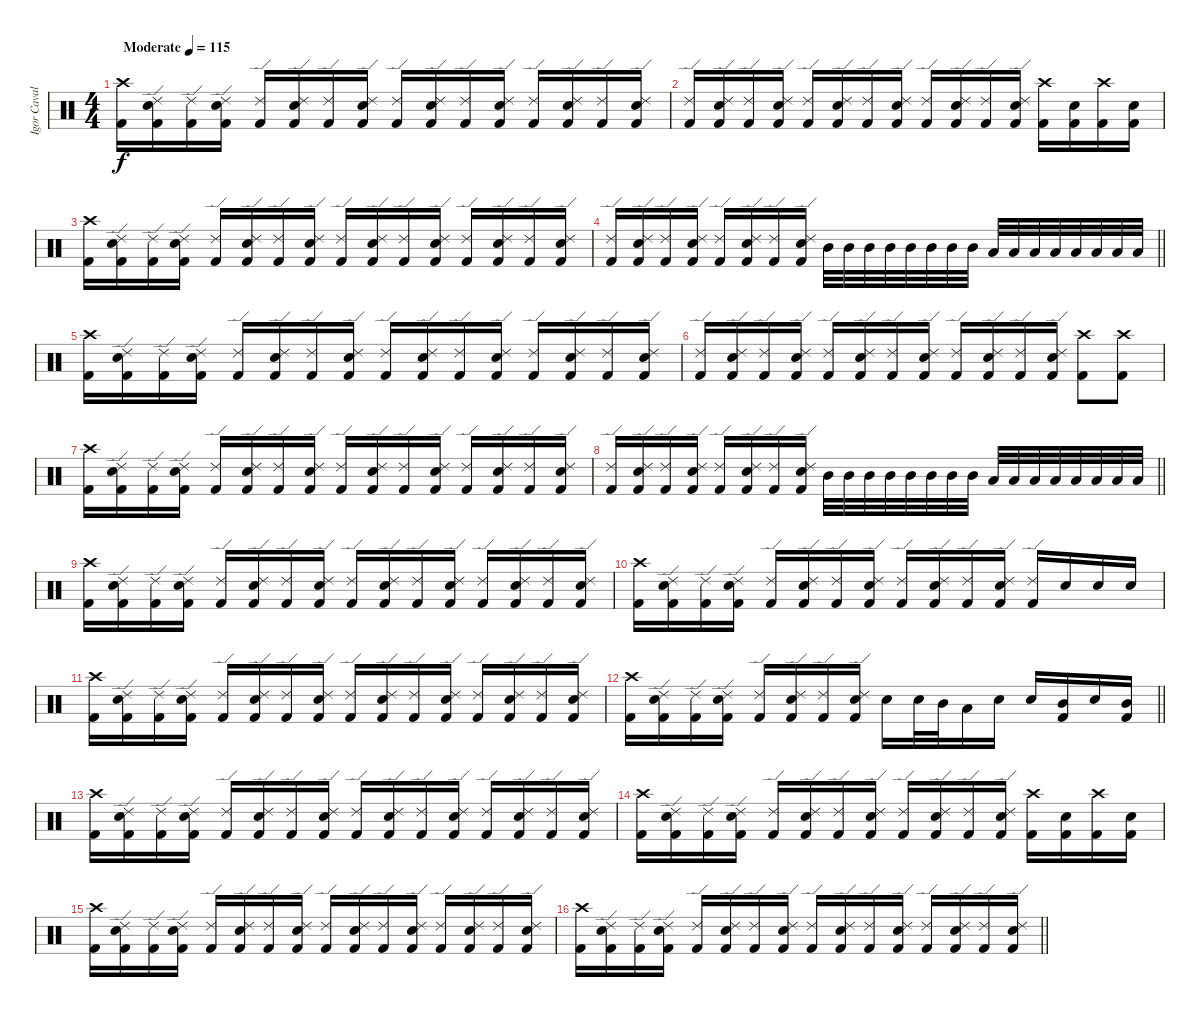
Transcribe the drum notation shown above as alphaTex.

\track ("Igor Cavalera" "Igor Caval") {instrument percussion}
\staff {score}
\articulation defaults
\ts (4 4)
\tempo (115 "Moderate")
\clef neutral
\ks c
("Kick (hit) 2" "Crash high (hit)").16{dy f} ("Kick (hit) 2" "Snare (hit) 2" "Ride (edge) 2").16 ("Kick (hit) 2" "Ride (edge) 2").16 ("Kick (hit) 2" "Snare (hit) 2" "Ride (edge) 2").16 ("Kick (hit) 2" "Ride (edge) 2").16 ("Kick (hit) 2" "Snare (hit) 2" "Ride (edge) 2").16 ("Kick (hit) 2" "Ride (edge) 2").16 ("Kick (hit) 2" "Snare (hit) 2" "Ride (edge) 2").16 ("Kick (hit) 2" "Ride (edge) 2").16 ("Kick (hit) 2" "Snare (hit) 2" "Ride (edge) 2").16 ("Kick (hit) 2" "Ride (edge) 2").16 ("Kick (hit) 2" "Snare (hit) 2" "Ride (edge) 2").16 ("Kick (hit) 2" "Ride (edge) 2").16 ("Kick (hit) 2" "Snare (hit) 2" "Ride (edge) 2").16 ("Kick (hit) 2" "Ride (edge) 2").16 ("Kick (hit) 2" "Snare (hit) 2" "Ride (edge) 2").16 |
("Kick (hit) 2" "Ride (edge) 2").16 ("Kick (hit) 2" "Snare (hit) 2" "Ride (edge) 2").16 ("Kick (hit) 2" "Ride (edge) 2").16 ("Kick (hit) 2" "Snare (hit) 2" "Ride (edge) 2").16 ("Kick (hit) 2" "Ride (edge) 2").16 ("Kick (hit) 2" "Snare (hit) 2" "Ride (edge) 2").16 ("Kick (hit) 2" "Ride (edge) 2").16 ("Kick (hit) 2" "Snare (hit) 2" "Ride (edge) 2").16 ("Kick (hit) 2" "Ride (edge) 2").16 ("Kick (hit) 2" "Snare (hit) 2" "Ride (edge) 2").16 ("Kick (hit) 2" "Ride (edge) 2").16 ("Kick (hit) 2" "Snare (hit) 2" "Ride (edge) 2").16 ("Kick (hit) 2" "Crash high (hit)").16 ("Kick (hit) 2" "Snare (hit) 2").16 ("Kick (hit) 2" "Crash high (hit)").16 ("Kick (hit) 2" "Snare (hit) 2").16 |
("Kick (hit) 2" "Crash high (hit)").16 ("Kick (hit) 2" "Snare (hit) 2" "Ride (edge) 2").16 ("Kick (hit) 2" "Ride (edge) 2").16 ("Kick (hit) 2" "Snare (hit) 2" "Ride (edge) 2").16 ("Kick (hit) 2" "Ride (edge) 2").16 ("Kick (hit) 2" "Snare (hit) 2" "Ride (edge) 2").16 ("Kick (hit) 2" "Ride (edge) 2").16 ("Kick (hit) 2" "Snare (hit) 2" "Ride (edge) 2").16 ("Kick (hit) 2" "Ride (edge) 2").16 ("Kick (hit) 2" "Snare (hit) 2" "Ride (edge) 2").16 ("Kick (hit) 2" "Ride (edge) 2").16 ("Kick (hit) 2" "Snare (hit) 2" "Ride (edge) 2").16 ("Kick (hit) 2" "Ride (edge) 2").16 ("Kick (hit) 2" "Snare (hit) 2" "Ride (edge) 2").16 ("Kick (hit) 2" "Ride (edge) 2").16 ("Kick (hit) 2" "Snare (hit) 2" "Ride (edge) 2").16 |
\barLineRight lightlight
("Kick (hit) 2" "Ride (edge) 2").16 ("Kick (hit) 2" "Snare (hit) 2" "Ride (edge) 2").16 ("Kick (hit) 2" "Ride (edge) 2").16 ("Kick (hit) 2" "Snare (hit) 2" "Ride (edge) 2").16 ("Kick (hit) 2" "Ride (edge) 2").16 ("Kick (hit) 2" "Snare (hit) 2" "Ride (edge) 2").16 ("Kick (hit) 2" "Ride (edge) 2").16 ("Kick (hit) 2" "Snare (hit) 2" "Ride (edge) 2").16 "Mid Tom (hit)".32 "Mid Tom (hit)".32 "Mid Tom (hit)".32 "Mid Tom (hit)".32 "Mid Tom (hit)".32 "Mid Tom (hit)".32 "Mid Tom (hit)".32 "Mid Tom (hit)".32 "Low Tom (hit)".32 "Low Tom (hit)".32 "Low Tom (hit)".32 "Low Tom (hit)".32 "Low Tom (hit)".32 "Low Tom (hit)".32 "Low Tom (hit)".32 "Low Tom (hit)".32 |
("Kick (hit) 2" "Crash high (hit)").16 ("Kick (hit) 2" "Snare (hit) 2" "Ride (edge) 2").16 ("Kick (hit) 2" "Ride (edge) 2").16 ("Kick (hit) 2" "Snare (hit) 2" "Ride (edge) 2").16 ("Kick (hit) 2" "Ride (edge) 2").16 ("Kick (hit) 2" "Snare (hit) 2" "Ride (edge) 2").16 ("Kick (hit) 2" "Ride (edge) 2").16 ("Kick (hit) 2" "Snare (hit) 2" "Ride (edge) 2").16 ("Kick (hit) 2" "Ride (edge) 2").16 ("Kick (hit) 2" "Snare (hit) 2" "Ride (edge) 2").16 ("Kick (hit) 2" "Ride (edge) 2").16 ("Kick (hit) 2" "Snare (hit) 2" "Ride (edge) 2").16 ("Kick (hit) 2" "Ride (edge) 2").16 ("Kick (hit) 2" "Snare (hit) 2" "Ride (edge) 2").16 ("Kick (hit) 2" "Ride (edge) 2").16 ("Kick (hit) 2" "Snare (hit) 2" "Ride (edge) 2").16 |
("Kick (hit) 2" "Ride (edge) 2").16 ("Kick (hit) 2" "Snare (hit) 2" "Ride (edge) 2").16 ("Kick (hit) 2" "Ride (edge) 2").16 ("Kick (hit) 2" "Snare (hit) 2" "Ride (edge) 2").16 ("Kick (hit) 2" "Ride (edge) 2").16 ("Kick (hit) 2" "Snare (hit) 2" "Ride (edge) 2").16 ("Kick (hit) 2" "Ride (edge) 2").16 ("Kick (hit) 2" "Snare (hit) 2" "Ride (edge) 2").16 ("Kick (hit) 2" "Ride (edge) 2").16 ("Kick (hit) 2" "Snare (hit) 2" "Ride (edge) 2").16 ("Kick (hit) 2" "Ride (edge) 2").16 ("Kick (hit) 2" "Snare (hit) 2" "Ride (edge) 2").16 ("Kick (hit) 2" "Crash high (hit)").8 ("Kick (hit) 2" "Crash high (hit)").8 |
("Kick (hit) 2" "Crash high (hit)").16 ("Kick (hit) 2" "Snare (hit) 2" "Ride (edge) 2").16 ("Kick (hit) 2" "Ride (edge) 2").16 ("Kick (hit) 2" "Snare (hit) 2" "Ride (edge) 2").16 ("Kick (hit) 2" "Ride (edge) 2").16 ("Kick (hit) 2" "Snare (hit) 2" "Ride (edge) 2").16 ("Kick (hit) 2" "Ride (edge) 2").16 ("Kick (hit) 2" "Snare (hit) 2" "Ride (edge) 2").16 ("Kick (hit) 2" "Ride (edge) 2").16 ("Kick (hit) 2" "Snare (hit) 2" "Ride (edge) 2").16 ("Kick (hit) 2" "Ride (edge) 2").16 ("Kick (hit) 2" "Snare (hit) 2" "Ride (edge) 2").16 ("Kick (hit) 2" "Ride (edge) 2").16 ("Kick (hit) 2" "Snare (hit) 2" "Ride (edge) 2").16 ("Kick (hit) 2" "Ride (edge) 2").16 ("Kick (hit) 2" "Snare (hit) 2" "Ride (edge) 2").16 |
\barLineRight lightlight
("Kick (hit) 2" "Ride (edge) 2").16 ("Kick (hit) 2" "Snare (hit) 2" "Ride (edge) 2").16 ("Kick (hit) 2" "Ride (edge) 2").16 ("Kick (hit) 2" "Snare (hit) 2" "Ride (edge) 2").16 ("Kick (hit) 2" "Ride (edge) 2").16 ("Kick (hit) 2" "Snare (hit) 2" "Ride (edge) 2").16 ("Kick (hit) 2" "Ride (edge) 2").16 ("Kick (hit) 2" "Snare (hit) 2" "Ride (edge) 2").16 "Mid Tom (hit)".32 "Mid Tom (hit)".32 "Mid Tom (hit)".32 "Mid Tom (hit)".32 "Mid Tom (hit)".32 "Mid Tom (hit)".32 "Mid Tom (hit)".32 "Mid Tom (hit)".32 "Low Tom (hit)".32 "Low Tom (hit)".32 "Low Tom (hit)".32 "Low Tom (hit)".32 "Low Tom (hit)".32 "Low Tom (hit)".32 "Low Tom (hit)".32 "Low Tom (hit)".32 |
("Kick (hit) 2" "Crash high (hit)").16 ("Kick (hit) 2" "Snare (hit) 2" "Ride (edge) 2").16 ("Kick (hit) 2" "Ride (edge) 2").16 ("Kick (hit) 2" "Snare (hit) 2" "Ride (edge) 2").16 ("Kick (hit) 2" "Ride (edge) 2").16 ("Kick (hit) 2" "Snare (hit) 2" "Ride (edge) 2").16 ("Kick (hit) 2" "Ride (edge) 2").16 ("Kick (hit) 2" "Snare (hit) 2" "Ride (edge) 2").16 ("Kick (hit) 2" "Ride (edge) 2").16 ("Kick (hit) 2" "Snare (hit) 2" "Ride (edge) 2").16 ("Kick (hit) 2" "Ride (edge) 2").16 ("Kick (hit) 2" "Snare (hit) 2" "Ride (edge) 2").16 ("Kick (hit) 2" "Ride (edge) 2").16 ("Kick (hit) 2" "Snare (hit) 2" "Ride (edge) 2").16 ("Kick (hit) 2" "Ride (edge) 2").16 ("Kick (hit) 2" "Snare (hit) 2" "Ride (edge) 2").16 |
("Kick (hit) 2" "Crash high (hit)").16 ("Kick (hit) 2" "Snare (hit) 2" "Ride (edge) 2").16 ("Kick (hit) 2" "Ride (edge) 2").16 ("Kick (hit) 2" "Snare (hit) 2" "Ride (edge) 2").16 ("Kick (hit) 2" "Ride (edge) 2").16 ("Kick (hit) 2" "Snare (hit) 2" "Ride (edge) 2").16 ("Kick (hit) 2" "Ride (edge) 2").16 ("Kick (hit) 2" "Snare (hit) 2" "Ride (edge) 2").16 ("Kick (hit) 2" "Ride (edge) 2").16 ("Kick (hit) 2" "Snare (hit) 2" "Ride (edge) 2").16 ("Kick (hit) 2" "Ride (edge) 2").16 ("Kick (hit) 2" "Snare (hit) 2" "Ride (edge) 2").16 ("Kick (hit) 2" "Ride (edge) 2").16 "Snare (hit) 2".16 "Snare (hit) 2".16 "Snare (hit) 2".16 |
("Kick (hit) 2" "Crash high (hit)").16 ("Kick (hit) 2" "Snare (hit) 2" "Ride (edge) 2").16 ("Kick (hit) 2" "Ride (edge) 2").16 ("Kick (hit) 2" "Snare (hit) 2" "Ride (edge) 2").16 ("Kick (hit) 2" "Ride (edge) 2").16 ("Kick (hit) 2" "Snare (hit) 2" "Ride (edge) 2").16 ("Kick (hit) 2" "Ride (edge) 2").16 ("Kick (hit) 2" "Snare (hit) 2" "Ride (edge) 2").16 ("Kick (hit) 2" "Ride (edge) 2").16 ("Kick (hit) 2" "Snare (hit) 2" "Ride (edge) 2").16 ("Kick (hit) 2" "Ride (edge) 2").16 ("Kick (hit) 2" "Snare (hit) 2" "Ride (edge) 2").16 ("Kick (hit) 2" "Ride (edge) 2").16 ("Kick (hit) 2" "Snare (hit) 2" "Ride (edge) 2").16 ("Kick (hit) 2" "Ride (edge) 2").16 ("Kick (hit) 2" "Snare (hit) 2" "Ride (edge) 2").16 |
\barLineRight lightlight
("Kick (hit) 2" "Crash high (hit)").16 ("Kick (hit) 2" "Snare (hit) 2" "Ride (edge) 2").16 ("Kick (hit) 2" "Ride (edge) 2").16 ("Kick (hit) 2" "Snare (hit) 2" "Ride (edge) 2").16 ("Kick (hit) 2" "Ride (edge) 2").16 ("Kick (hit) 2" "Snare (hit) 2" "Ride (edge) 2").16 ("Kick (hit) 2" "Ride (edge) 2").16 ("Kick (hit) 2" "Snare (hit) 2" "Ride (edge) 2").16 "Snare (hit) 2".16 "Snare (hit) 2".32 "Mid Tom (hit)".32 "Low Tom (hit)".16 "Snare (hit) 2".16 "Snare (hit) 2".16 ("Kick (hit) 2" "Mid Tom (hit)").16 "Snare (hit) 2".16 ("Kick (hit) 2" "Mid Tom (hit)").16 |
("Kick (hit) 2" "Crash high (hit)").16 ("Kick (hit) 2" "Snare (hit) 2" "Ride (edge) 2").16 ("Kick (hit) 2" "Ride (edge) 2").16 ("Kick (hit) 2" "Snare (hit) 2" "Ride (edge) 2").16 ("Kick (hit) 2" "Ride (edge) 2").16 ("Kick (hit) 2" "Snare (hit) 2" "Ride (edge) 2").16 ("Kick (hit) 2" "Ride (edge) 2").16 ("Kick (hit) 2" "Snare (hit) 2" "Ride (edge) 2").16 ("Kick (hit) 2" "Ride (edge) 2").16 ("Kick (hit) 2" "Snare (hit) 2" "Ride (edge) 2").16 ("Kick (hit) 2" "Ride (edge) 2").16 ("Kick (hit) 2" "Snare (hit) 2" "Ride (edge) 2").16 ("Kick (hit) 2" "Ride (edge) 2").16 ("Kick (hit) 2" "Snare (hit) 2" "Ride (edge) 2").16 ("Kick (hit) 2" "Ride (edge) 2").16 ("Kick (hit) 2" "Snare (hit) 2" "Ride (edge) 2").16 |
("Kick (hit) 2" "Crash high (hit)").16 ("Kick (hit) 2" "Snare (hit) 2" "Ride (edge) 2").16 ("Kick (hit) 2" "Ride (edge) 2").16 ("Kick (hit) 2" "Snare (hit) 2" "Ride (edge) 2").16 ("Kick (hit) 2" "Ride (edge) 2").16 ("Kick (hit) 2" "Snare (hit) 2" "Ride (edge) 2").16 ("Kick (hit) 2" "Ride (edge) 2").16 ("Kick (hit) 2" "Snare (hit) 2" "Ride (edge) 2").16 ("Kick (hit) 2" "Ride (edge) 2").16 ("Kick (hit) 2" "Snare (hit) 2" "Ride (edge) 2").16 ("Kick (hit) 2" "Ride (edge) 2").16 ("Kick (hit) 2" "Snare (hit) 2" "Ride (edge) 2").16 ("Kick (hit) 2" "Crash high (hit)").16 ("Kick (hit) 2" "Snare (hit) 2").16 ("Kick (hit) 2" "Crash high (hit)").16 ("Kick (hit) 2" "Snare (hit) 2").16 |
("Kick (hit) 2" "Crash high (hit)").16 ("Kick (hit) 2" "Snare (hit) 2" "Ride (edge) 2").16 ("Kick (hit) 2" "Ride (edge) 2").16 ("Kick (hit) 2" "Snare (hit) 2" "Ride (edge) 2").16 ("Kick (hit) 2" "Ride (edge) 2").16 ("Kick (hit) 2" "Snare (hit) 2" "Ride (edge) 2").16 ("Kick (hit) 2" "Ride (edge) 2").16 ("Kick (hit) 2" "Snare (hit) 2" "Ride (edge) 2").16 ("Kick (hit) 2" "Ride (edge) 2").16 ("Kick (hit) 2" "Snare (hit) 2" "Ride (edge) 2").16 ("Kick (hit) 2" "Ride (edge) 2").16 ("Kick (hit) 2" "Snare (hit) 2" "Ride (edge) 2").16 ("Kick (hit) 2" "Ride (edge) 2").16 ("Kick (hit) 2" "Snare (hit) 2" "Ride (edge) 2").16 ("Kick (hit) 2" "Ride (edge) 2").16 ("Kick (hit) 2" "Snare (hit) 2" "Ride (edge) 2").16 |
\barLineRight lightlight
("Kick (hit) 2" "Crash high (hit)").16 ("Kick (hit) 2" "Snare (hit) 2" "Ride (edge) 2").16 ("Kick (hit) 2" "Ride (edge) 2").16 ("Kick (hit) 2" "Snare (hit) 2" "Ride (edge) 2").16 ("Kick (hit) 2" "Ride (edge) 2").16 ("Kick (hit) 2" "Snare (hit) 2" "Ride (edge) 2").16 ("Kick (hit) 2" "Ride (edge) 2").16 ("Kick (hit) 2" "Snare (hit) 2" "Ride (edge) 2").16 ("Kick (hit) 2" "Ride (edge) 2").16 ("Kick (hit) 2" "Snare (hit) 2" "Ride (edge) 2").16 ("Kick (hit) 2" "Ride (edge) 2").16 ("Kick (hit) 2" "Snare (hit) 2" "Ride (edge) 2").16 ("Kick (hit) 2" "Ride (edge) 2").16 ("Kick (hit) 2" "Snare (hit) 2" "Ride (edge) 2").16 ("Kick (hit) 2" "Ride (edge) 2").16 ("Kick (hit) 2" "Snare (hit) 2" "Ride (edge) 2").16
